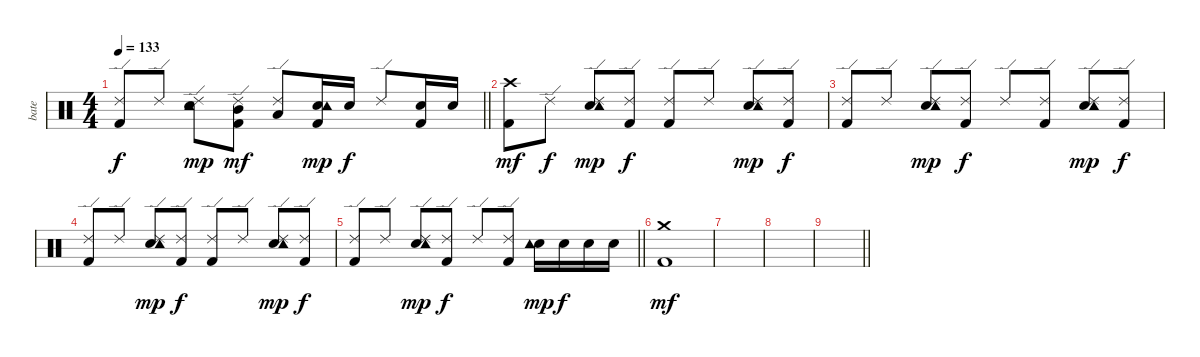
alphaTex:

\track ("bate" "bate") {instrument percussion}
\staff {score}
\articulation defaults
\ts (4 4)
\tempo 133
\clef neutral
\barLineRight lightlight
\ks c
("Ride (edge) 2" "Kick (hit) 2").8{dy f} "Ride (edge) 2".8 ("Ride (edge) 2" "Snare (hit) 2" "Tambourine (hit)").8{dy mp} ("Ride (edge) 2" "Mid Tom (hit)" "Kick (hit) 2").8{dy mf} ("Ride (edge) 2" "Low Tom (hit)").8 ("Snare (hit) 2" "Tambourine (hit)" "Kick (hit) 2").16{dy mp} "Snare (hit) 2".16{dy f} "Ride (edge) 2".8 ("Snare (hit) 2" "Kick (hit) 2").16 "Snare (hit) 2".16 |
("Crash high (hit)" "Kick (hit) 2").8{dy mf} "Ride (edge) 2".8{dy f} ("Ride (edge) 2" "Snare (hit) 2" "Tambourine (hit)").8{dy mp} ("Ride (edge) 2" "Kick (hit) 2").8{dy f} ("Ride (edge) 2" "Kick (hit) 2").8 "Ride (edge) 2".8 ("Ride (edge) 2" "Snare (hit) 2" "Tambourine (hit)").8{dy mp} ("Ride (edge) 2" "Kick (hit) 2").8{dy f} |
("Ride (edge) 2" "Kick (hit) 2").8 "Ride (edge) 2".8 ("Ride (edge) 2" "Snare (hit) 2" "Tambourine (hit)").8{dy mp} ("Ride (edge) 2" "Kick (hit) 2").8{dy f} "Ride (edge) 2".8 ("Ride (edge) 2" "Kick (hit) 2").8 ("Ride (edge) 2" "Snare (hit) 2" "Tambourine (hit)").8{dy mp} ("Ride (edge) 2" "Kick (hit) 2").8{dy f} |
("Ride (edge) 2" "Kick (hit) 2").8 "Ride (edge) 2".8 ("Ride (edge) 2" "Snare (hit) 2" "Tambourine (hit)").8{dy mp} ("Ride (edge) 2" "Kick (hit) 2").8{dy f} ("Ride (edge) 2" "Kick (hit) 2").8 "Ride (edge) 2".8 ("Ride (edge) 2" "Snare (hit) 2" "Tambourine (hit)").8{dy mp} ("Ride (edge) 2" "Kick (hit) 2").8{dy f} |
\barLineRight lightlight
("Ride (edge) 2" "Kick (hit) 2").8 "Ride (edge) 2".8 ("Ride (edge) 2" "Snare (hit) 2" "Tambourine (hit)").8{dy mp} ("Ride (edge) 2" "Kick (hit) 2").8{dy f} "Ride (edge) 2".8 ("Ride (edge) 2" "Kick (hit) 2").8 ("Snare (hit) 2" "Tambourine (hit)").16{dy mp} "Snare (hit) 2".16{dy f} "Snare (hit) 2".16 "Snare (hit) 2".16 |
("Crash medium (hit)" "Kick (hit) 2").1{dy mf} |
|
|
\barLineRight lightlight
